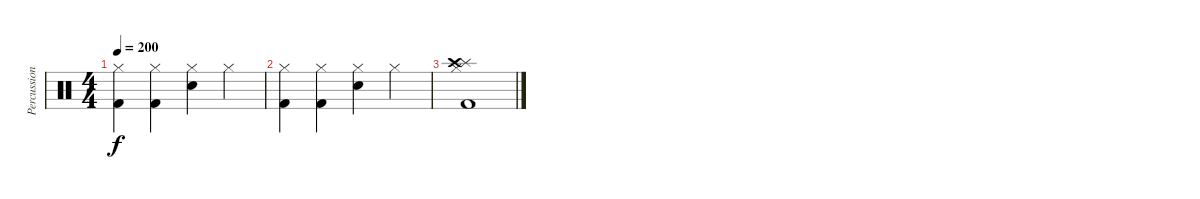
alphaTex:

\track ("Percussion" "Percussion") {instrument percussion}
\staff {score}
\articulation defaults
\ts (4 4)
\tempo 200
\clef neutral
\ks c
("Kick (hit) 2" "Hi-Hat (closed)").4{dy f} ("Kick (hit) 2" "Hi-Hat (closed)").4 ("Snare (hit) 2" "Hi-Hat (closed)").4 "Hi-Hat (closed)".4 |
("Kick (hit) 2" "Hi-Hat (closed)").4 ("Kick (hit) 2" "Hi-Hat (closed)").4 ("Snare (hit) 2" "Hi-Hat (closed)").4 "Hi-Hat (closed)".4 |
("Kick (hit) 2" "Hi-Hat (closed)" "Splash (hit)" "Crash high (hit)").1
